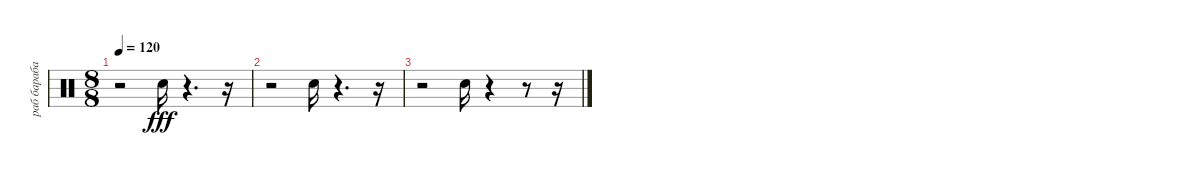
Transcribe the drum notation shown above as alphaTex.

\track ("раб барабан" "раб бараба") {instrument percussion}
\staff {score}
\articulation defaults
\ts (8 8)
\tempo 120
\clef neutral
\ks c
r.2{dy fff} "Snare (hit) 2".16{volume 6} r.4{d} r.16 |
r.2 "Snare (hit) 2".16{volume 5} r.4{d} r.16 |
r.2 "Snare (hit) 2".16{volume 3} r.4 r.8 r.16
